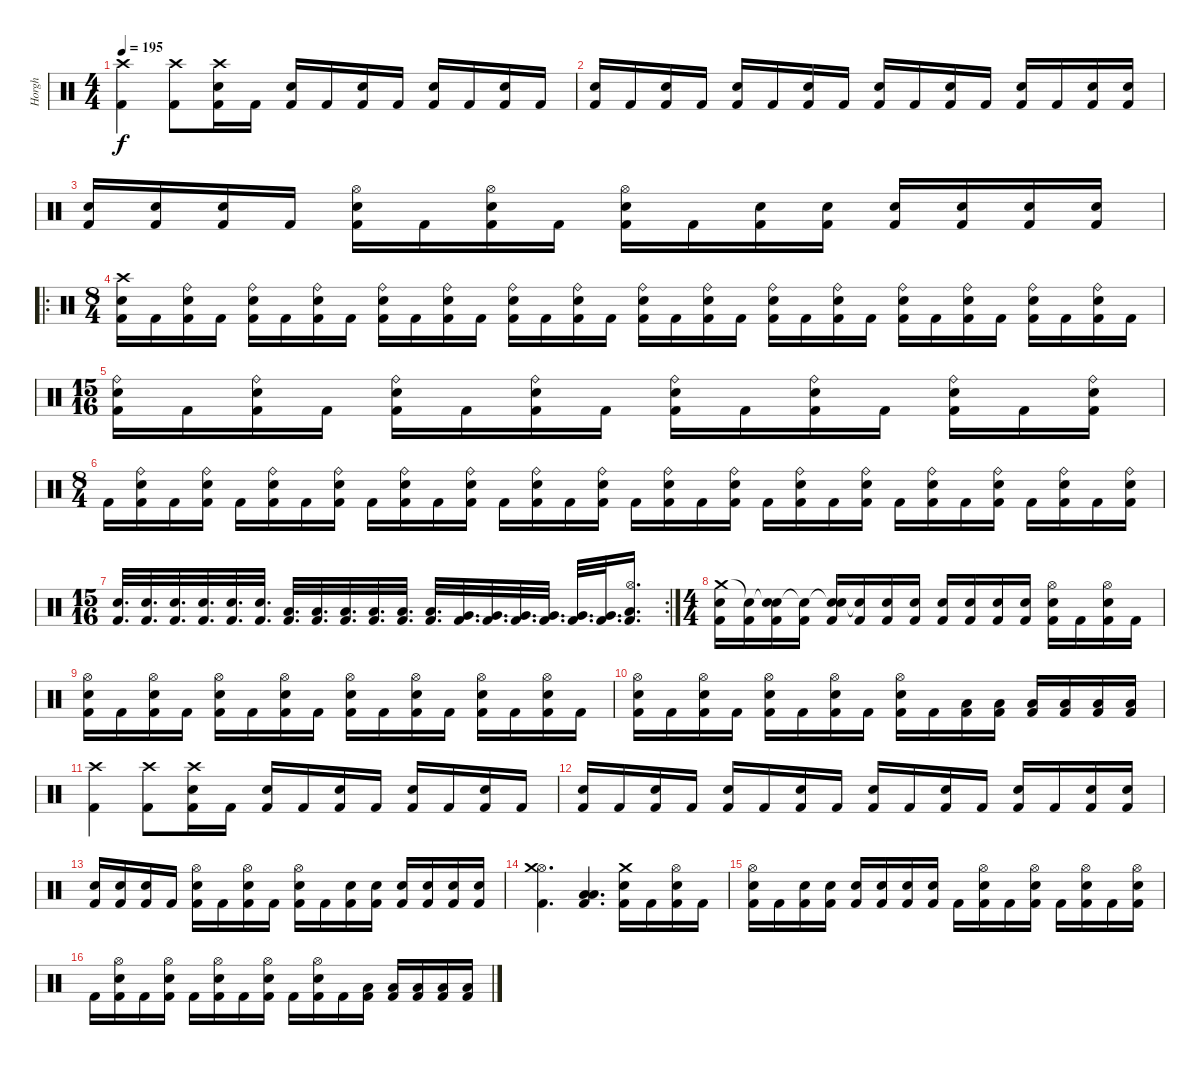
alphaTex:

\track ("Horgh" "Horgh") {instrument percussion}
\staff {score}
\articulation defaults
\ts (4 4)
\tempo 195
\clef neutral
\ks c
("Crash high (hit)" "Kick (hit) 2").4{dy f} ("Crash high (hit)" "Kick (hit) 2").8 ("Crash high (hit)" "Electric Snare (hit)" "Kick (hit) 2").16 "Kick (hit) 2".16 ("Electric Snare (hit)" "Kick (hit) 2").16 "Kick (hit) 2".16 ("Electric Snare (hit)" "Kick (hit) 2").16 "Kick (hit) 2".16 ("Electric Snare (hit)" "Kick (hit) 2").16 "Kick (hit) 2".16 ("Electric Snare (hit)" "Kick (hit) 2").16 "Kick (hit) 2".16 |
("Electric Snare (hit)" "Kick (hit) 2").16 "Kick (hit) 2".16 ("Electric Snare (hit)" "Kick (hit) 2").16 "Kick (hit) 2".16 ("Electric Snare (hit)" "Kick (hit) 2").16 "Kick (hit) 2".16 ("Electric Snare (hit)" "Kick (hit) 2").16 "Kick (hit) 2".16 ("Electric Snare (hit)" "Kick (hit) 2").16 "Kick (hit) 2".16 ("Electric Snare (hit)" "Kick (hit) 2").16 "Kick (hit) 2".16 ("Electric Snare (hit)" "Kick (hit) 2").16 "Kick (hit) 2".16 ("Electric Snare (hit)" "Kick (hit) 2").16 ("Electric Snare (hit)" "Kick (hit) 2").16 |
("Electric Snare (hit)" "Kick (hit) 2").16 ("Electric Snare (hit)" "Kick (hit) 2").16 ("Electric Snare (hit)" "Kick (hit) 2").16 "Kick (hit) 2".16 ("Hi-Hat (open)" "Electric Snare (hit)" "Kick (hit) 2").16 "Kick (hit) 2".16 ("Hi-Hat (open)" "Electric Snare (hit)" "Kick (hit) 2").16 "Kick (hit) 2".16 ("Hi-Hat (open)" "Electric Snare (hit)" "Kick (hit) 2").16 "Kick (hit) 2".16 ("Electric Snare (hit)" "Kick (hit) 2").16 ("Electric Snare (hit)" "Kick (hit) 2").16 ("Electric Snare (hit)" "Kick (hit) 2").16 ("Electric Snare (hit)" "Kick (hit) 2").16 ("Electric Snare (hit)" "Kick (hit) 2").16 ("Electric Snare (hit)" "Kick (hit) 2").16 |
\ro
\ts (8 4)
("Crash high (hit)" "Electric Snare (hit)" "Kick (hit) 2").16 "Kick (hit) 2".16 ("Ride (bell)" "Electric Snare (hit)" "Kick (hit) 2").16 "Kick (hit) 2".16 ("Ride (bell)" "Electric Snare (hit)" "Kick (hit) 2").16 "Kick (hit) 2".16 ("Ride (bell)" "Electric Snare (hit)" "Kick (hit) 2").16 "Kick (hit) 2".16 ("Ride (bell)" "Electric Snare (hit)" "Kick (hit) 2").16 "Kick (hit) 2".16 ("Ride (bell)" "Electric Snare (hit)" "Kick (hit) 2").16 "Kick (hit) 2".16 ("Ride (bell)" "Electric Snare (hit)" "Kick (hit) 2").16 "Kick (hit) 2".16 ("Ride (bell)" "Electric Snare (hit)" "Kick (hit) 2").16 "Kick (hit) 2".16 ("Ride (bell)" "Electric Snare (hit)" "Kick (hit) 2").16 "Kick (hit) 2".16 ("Ride (bell)" "Electric Snare (hit)" "Kick (hit) 2").16 "Kick (hit) 2".16 ("Ride (bell)" "Electric Snare (hit)" "Kick (hit) 2").16 "Kick (hit) 2".16 ("Ride (bell)" "Electric Snare (hit)" "Kick (hit) 2").16 "Kick (hit) 2".16 ("Ride (bell)" "Electric Snare (hit)" "Kick (hit) 2").16 "Kick (hit) 2".16 ("Ride (bell)" "Electric Snare (hit)" "Kick (hit) 2").16 "Kick (hit) 2".16 ("Ride (bell)" "Electric Snare (hit)" "Kick (hit) 2").16 "Kick (hit) 2".16 ("Ride (bell)" "Electric Snare (hit)" "Kick (hit) 2").16 "Kick (hit) 2".16 |
\ts (15 16)
("Ride (bell)" "Electric Snare (hit)" "Kick (hit) 2").16 "Kick (hit) 2".16 ("Ride (bell)" "Electric Snare (hit)" "Kick (hit) 2").16 "Kick (hit) 2".16 ("Ride (bell)" "Electric Snare (hit)" "Kick (hit) 2").16 "Kick (hit) 2".16 ("Ride (bell)" "Electric Snare (hit)" "Kick (hit) 2").16 "Kick (hit) 2".16 ("Ride (bell)" "Electric Snare (hit)" "Kick (hit) 2").16 "Kick (hit) 2".16 ("Ride (bell)" "Electric Snare (hit)" "Kick (hit) 2").16 "Kick (hit) 2".16 ("Ride (bell)" "Electric Snare (hit)" "Kick (hit) 2").16 "Kick (hit) 2".16 ("Ride (bell)" "Electric Snare (hit)" "Kick (hit) 2").16 |
\ts (8 4)
"Kick (hit) 2".16 ("Ride (bell)" "Electric Snare (hit)" "Kick (hit) 2").16 "Kick (hit) 2".16 ("Ride (bell)" "Electric Snare (hit)" "Kick (hit) 2").16 "Kick (hit) 2".16 ("Ride (bell)" "Electric Snare (hit)" "Kick (hit) 2").16 "Kick (hit) 2".16 ("Ride (bell)" "Electric Snare (hit)" "Kick (hit) 2").16 "Kick (hit) 2".16 ("Ride (bell)" "Electric Snare (hit)" "Kick (hit) 2").16 "Kick (hit) 2".16 ("Ride (bell)" "Electric Snare (hit)" "Kick (hit) 2").16 "Kick (hit) 2".16 ("Ride (bell)" "Electric Snare (hit)" "Kick (hit) 2").16 "Kick (hit) 2".16 ("Ride (bell)" "Electric Snare (hit)" "Kick (hit) 2").16 "Kick (hit) 2".16 ("Ride (bell)" "Electric Snare (hit)" "Kick (hit) 2").16 "Kick (hit) 2".16 ("Ride (bell)" "Electric Snare (hit)" "Kick (hit) 2").16 "Kick (hit) 2".16 ("Ride (bell)" "Electric Snare (hit)" "Kick (hit) 2").16 "Kick (hit) 2".16 ("Ride (bell)" "Electric Snare (hit)" "Kick (hit) 2").16 "Kick (hit) 2".16 ("Ride (bell)" "Electric Snare (hit)" "Kick (hit) 2").16 "Kick (hit) 2".16 ("Ride (bell)" "Electric Snare (hit)" "Kick (hit) 2").16 "Kick (hit) 2".16 ("Ride (bell)" "Electric Snare (hit)" "Kick (hit) 2").16 "Kick (hit) 2".16 ("Ride (bell)" "Electric Snare (hit)" "Kick (hit) 2").16 |
\rc 2
\ts (15 16)
("Electric Snare (hit)" "Kick (hit) 2").32{d} ("Electric Snare (hit)" "Kick (hit) 2").32{d} ("Electric Snare (hit)" "Kick (hit) 2").32{d} ("Electric Snare (hit)" "Kick (hit) 2").32{d} ("Electric Snare (hit)" "Kick (hit) 2").32{d} ("Electric Snare (hit)" "Kick (hit) 2").32{d} ("Low Floor Tom (hit)" "Kick (hit) 2").32{d} ("Low Floor Tom (hit)" "Kick (hit) 2").32{d} ("Low Floor Tom (hit)" "Kick (hit) 2").32{d} ("Low Floor Tom (hit)" "Kick (hit) 2").32{d} ("Low Floor Tom (hit)" "Kick (hit) 2").32{d} ("Low Floor Tom (hit)" "Kick (hit) 2").32{d} ("Very Low Tom (hit)" "Kick (hit) 2").32{d} ("Very Low Tom (hit)" "Kick (hit) 2").32{d} ("Very Low Tom (hit)" "Kick (hit) 2").32{d} ("Very Low Tom (hit)" "Kick (hit) 2").32{d} ("Very Low Tom (hit)" "Kick (hit) 2").32{d} ("Very Low Tom (hit)" "Kick (hit) 2").32{d} ("Hi-Hat (open)" "Low Tom (hit)" "Kick (hit) 2").16{d} |
\ts (4 4)
("Crash medium (hit)" "Electric Snare (hit)" "Kick (hit) 2").16 ("Snare (hit)"{t} "Kick (hit) 2").16 ("Snare (hit)"{t} "Electric Snare (hit)" "Kick (hit) 2").16 ("Snare (hit)"{t} "Kick (hit) 2").16 ("Snare (hit)"{t} "Electric Snare (hit)" "Kick (hit) 2").16 ("Snare (hit)"{t} "Kick (hit) 2").16 ("Electric Snare (hit)" "Kick (hit) 2").16 ("Electric Snare (hit)" "Kick (hit) 2").16 ("Electric Snare (hit)" "Kick (hit) 2").16 ("Electric Snare (hit)" "Kick (hit) 2").16 ("Electric Snare (hit)" "Kick (hit) 2").16 ("Electric Snare (hit)" "Kick (hit) 2").16 ("Hi-Hat (open)" "Electric Snare (hit)" "Kick (hit) 2").16 "Kick (hit) 2".16 ("Hi-Hat (open)" "Electric Snare (hit)" "Kick (hit) 2").16 "Kick (hit) 2".16 |
("Hi-Hat (open)" "Electric Snare (hit)" "Kick (hit) 2").16 "Kick (hit) 2".16 ("Hi-Hat (open)" "Electric Snare (hit)" "Kick (hit) 2").16 "Kick (hit) 2".16 ("Hi-Hat (open)" "Electric Snare (hit)" "Kick (hit) 2").16 "Kick (hit) 2".16 ("Hi-Hat (open)" "Electric Snare (hit)" "Kick (hit) 2").16 "Kick (hit) 2".16 ("Hi-Hat (open)" "Electric Snare (hit)" "Kick (hit) 2").16 "Kick (hit) 2".16 ("Hi-Hat (open)" "Electric Snare (hit)" "Kick (hit) 2").16 "Kick (hit) 2".16 ("Hi-Hat (open)" "Electric Snare (hit)" "Kick (hit) 2").16 "Kick (hit) 2".16 ("Hi-Hat (open)" "Electric Snare (hit)" "Kick (hit) 2").16 "Kick (hit) 2".16 |
("Hi-Hat (open)" "Electric Snare (hit)" "Kick (hit) 2").16 "Kick (hit) 2".16 ("Hi-Hat (open)" "Electric Snare (hit)" "Kick (hit) 2").16 "Kick (hit) 2".16 ("Hi-Hat (open)" "Electric Snare (hit)" "Kick (hit) 2").16 "Kick (hit) 2".16 ("Hi-Hat (open)" "Electric Snare (hit)" "Kick (hit) 2").16 "Kick (hit) 2".16 ("Hi-Hat (open)" "Electric Snare (hit)" "Kick (hit) 2").16 "Kick (hit) 2".16 ("Low Floor Tom (hit)" "Kick (hit) 2").16 ("Low Floor Tom (hit)" "Kick (hit) 2").16 ("Low Floor Tom (hit)" "Kick (hit) 2").16 ("Low Floor Tom (hit)" "Kick (hit) 2").16 ("Low Floor Tom (hit)" "Kick (hit) 2").16 ("Low Floor Tom (hit)" "Kick (hit) 2").16 |
("Crash high (hit)" "Kick (hit) 2").4 ("Crash high (hit)" "Kick (hit) 2").8 ("Crash high (hit)" "Electric Snare (hit)" "Kick (hit) 2").16 "Kick (hit) 2".16 ("Electric Snare (hit)" "Kick (hit) 2").16 "Kick (hit) 2".16 ("Electric Snare (hit)" "Kick (hit) 2").16 "Kick (hit) 2".16 ("Electric Snare (hit)" "Kick (hit) 2").16 "Kick (hit) 2".16 ("Electric Snare (hit)" "Kick (hit) 2").16 "Kick (hit) 2".16 |
("Electric Snare (hit)" "Kick (hit) 2").16 "Kick (hit) 2".16 ("Electric Snare (hit)" "Kick (hit) 2").16 "Kick (hit) 2".16 ("Electric Snare (hit)" "Kick (hit) 2").16 "Kick (hit) 2".16 ("Electric Snare (hit)" "Kick (hit) 2").16 "Kick (hit) 2".16 ("Electric Snare (hit)" "Kick (hit) 2").16 "Kick (hit) 2".16 ("Electric Snare (hit)" "Kick (hit) 2").16 "Kick (hit) 2".16 ("Electric Snare (hit)" "Kick (hit) 2").16 "Kick (hit) 2".16 ("Electric Snare (hit)" "Kick (hit) 2").16 ("Electric Snare (hit)" "Kick (hit) 2").16 |
("Electric Snare (hit)" "Kick (hit) 2").16 ("Electric Snare (hit)" "Kick (hit) 2").16 ("Electric Snare (hit)" "Kick (hit) 2").16 "Kick (hit) 2".16 ("Hi-Hat (open)" "Electric Snare (hit)" "Kick (hit) 2").16 "Kick (hit) 2".16 ("Hi-Hat (open)" "Electric Snare (hit)" "Kick (hit) 2").16 "Kick (hit) 2".16 ("Hi-Hat (open)" "Electric Snare (hit)" "Kick (hit) 2").16 "Kick (hit) 2".16 ("Electric Snare (hit)" "Kick (hit) 2").16 ("Electric Snare (hit)" "Kick (hit) 2").16 ("Electric Snare (hit)" "Kick (hit) 2").16 ("Electric Snare (hit)" "Kick (hit) 2").16 ("Electric Snare (hit)" "Kick (hit) 2").16 ("Electric Snare (hit)" "Kick (hit) 2").16 |
("Hi-Hat (open)" "Crash medium (hit)" "Kick (hit) 2").4{d} ("Low Floor Tom (hit)" "Low Floor Tom (hit)" "Kick (hit) 2").4{d} ("Crash medium (hit)" "Electric Snare (hit)" "Kick (hit) 2").16 "Kick (hit) 2".16 ("Hi-Hat (open)" "Electric Snare (hit)" "Kick (hit) 2").16 "Kick (hit) 2".16 |
("Hi-Hat (open)" "Electric Snare (hit)" "Kick (hit) 2").16 "Kick (hit) 2".16 ("Electric Snare (hit)" "Kick (hit) 2").16 ("Electric Snare (hit)" "Kick (hit) 2").16 ("Electric Snare (hit)" "Kick (hit) 2").16 ("Electric Snare (hit)" "Kick (hit) 2").16 ("Electric Snare (hit)" "Kick (hit) 2").16 ("Electric Snare (hit)" "Kick (hit) 2").16 "Kick (hit) 2".16 ("Hi-Hat (open)" "Electric Snare (hit)" "Kick (hit) 2").16 "Kick (hit) 2".16 ("Hi-Hat (open)" "Electric Snare (hit)" "Kick (hit) 2").16 "Kick (hit) 2".16 ("Hi-Hat (open)" "Electric Snare (hit)" "Kick (hit) 2").16 "Kick (hit) 2".16 ("Hi-Hat (open)" "Electric Snare (hit)" "Kick (hit) 2").16 |
"Kick (hit) 2".16 ("Hi-Hat (open)" "Electric Snare (hit)" "Kick (hit) 2").16 "Kick (hit) 2".16 ("Hi-Hat (open)" "Electric Snare (hit)" "Kick (hit) 2").16 "Kick (hit) 2".16 ("Hi-Hat (open)" "Electric Snare (hit)" "Kick (hit) 2").16 "Kick (hit) 2".16 ("Hi-Hat (open)" "Electric Snare (hit)" "Kick (hit) 2").16 "Kick (hit) 2".16 ("Hi-Hat (open)" "Electric Snare (hit)" "Kick (hit) 2").16 "Kick (hit) 2".16 ("Low Floor Tom (hit)" "Kick (hit) 2").16 ("Low Floor Tom (hit)" "Kick (hit) 2").16 ("Low Floor Tom (hit)" "Kick (hit) 2").16 ("Low Floor Tom (hit)" "Kick (hit) 2").16 ("Low Floor Tom (hit)" "Kick (hit) 2").16
